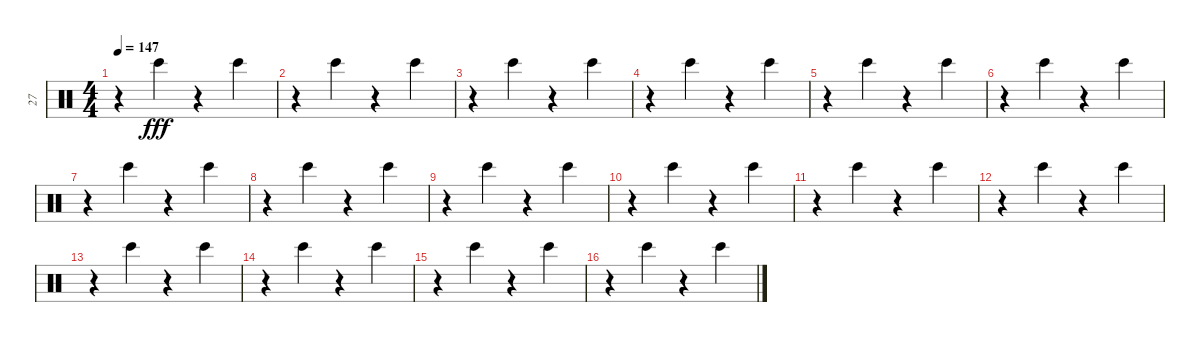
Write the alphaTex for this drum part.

\track ("27" "27") {instrument percussion}
\staff {score}
\articulation defaults
\ts (4 4)
\tempo 147
\clef neutral
\ks c
r.4{dy fff} "Bongo High (hit)".4 r.4 "Bongo High (hit)".4 |
r.4 "Bongo High (hit)".4 r.4 "Bongo High (hit)".4 |
r.4 "Bongo High (hit)".4 r.4 "Bongo High (hit)".4 |
r.4 "Bongo High (hit)".4 r.4 "Bongo High (hit)".4 |
r.4 "Bongo High (hit)".4 r.4 "Bongo High (hit)".4 |
r.4 "Bongo High (hit)".4 r.4 "Bongo High (hit)".4 |
r.4 "Bongo High (hit)".4 r.4 "Bongo High (hit)".4 |
r.4 "Bongo High (hit)".4 r.4 "Bongo High (hit)".4 |
r.4 "Bongo High (hit)".4 r.4 "Bongo High (hit)".4 |
r.4 "Bongo High (hit)".4 r.4 "Bongo High (hit)".4 |
r.4 "Bongo High (hit)".4 r.4 "Bongo High (hit)".4 |
r.4 "Bongo High (hit)".4 r.4 "Bongo High (hit)".4 |
r.4 "Bongo High (hit)".4 r.4 "Bongo High (hit)".4 |
r.4 "Bongo High (hit)".4 r.4 "Bongo High (hit)".4 |
r.4 "Bongo High (hit)".4 r.4 "Bongo High (hit)".4 |
r.4 "Bongo High (hit)".4 r.4 "Bongo High (hit)".4
